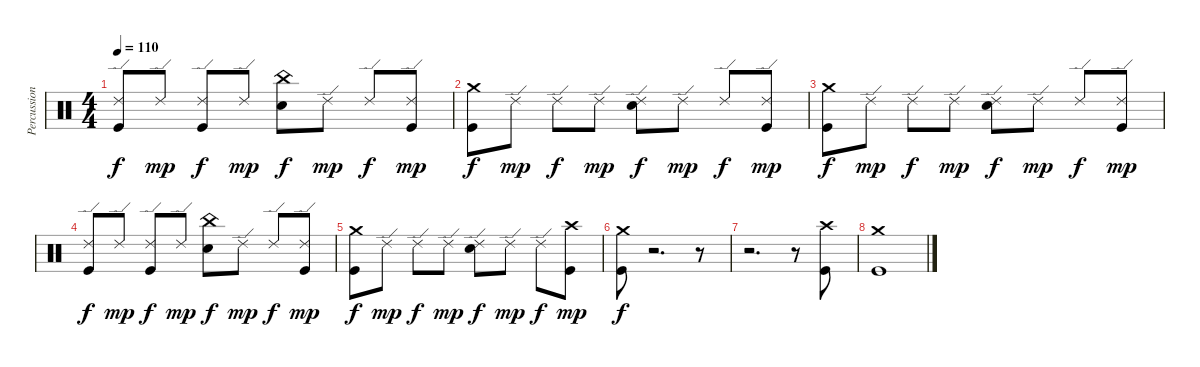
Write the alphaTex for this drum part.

\track ("Percussioni" "Percussion") {instrument percussion}
\staff {score}
\articulation defaults
\ts (4 4)
\tempo 110
\clef neutral
\ks c
("Ride (edge) 2" "Kick (hit)").8{dy f} "Ride (edge) 2".8{dy mp} ("Ride (edge) 2" "Kick (hit)").8{dy f} "Ride (edge) 2".8{dy mp} ("China (hit)" "Electric Snare (hit)").8{dy f} "Ride (edge) 2".8{dy mp} "Ride (edge) 2".8{dy f} ("Ride (edge) 2" "Kick (hit)").8{dy mp} |
("Crash medium (hit)" "Kick (hit)").8{dy f} "Ride (edge) 2".8{dy mp} "Ride (edge) 2".8{dy f} "Ride (edge) 2".8{dy mp} ("Ride (edge) 2" "Electric Snare (hit)").8{dy f} "Ride (edge) 2".8{dy mp} "Ride (edge) 2".8{dy f} ("Ride (edge) 2" "Kick (hit)").8{dy mp} |
("Crash medium (hit)" "Kick (hit)").8{dy f} "Ride (edge) 2".8{dy mp} "Ride (edge) 2".8{dy f} "Ride (edge) 2".8{dy mp} ("Ride (edge) 2" "Electric Snare (hit)").8{dy f} "Ride (edge) 2".8{dy mp} "Ride (edge) 2".8{dy f} ("Ride (edge) 2" "Kick (hit)").8{dy mp} |
("Ride (edge) 2" "Kick (hit)").8{dy f} "Ride (edge) 2".8{dy mp} ("Ride (edge) 2" "Kick (hit)").8{dy f} "Ride (edge) 2".8{dy mp} ("China (hit)" "Electric Snare (hit)").8{dy f} "Ride (edge) 2".8{dy mp} "Ride (edge) 2".8{dy f} ("Ride (edge) 2" "Kick (hit)").8{dy mp} |
("Crash medium (hit)" "Kick (hit)").8{dy f} "Ride (edge) 2".8{dy mp} "Ride (edge) 2".8{dy f} "Ride (edge) 2".8{dy mp} ("Ride (edge) 2" "Electric Snare (hit)").8{dy f} "Ride (edge) 2".8{dy mp} "Ride (edge) 2".8{dy f} ("Crash high (hit)" "Kick (hit)").8{dy mp} |
("Crash medium (hit)" "Kick (hit)").8{dy f} r.2{d} r.8 |
r.2{d} r.8 ("Crash high (hit)" "Kick (hit)").8 |
("Crash medium (hit)" "Kick (hit)").1
